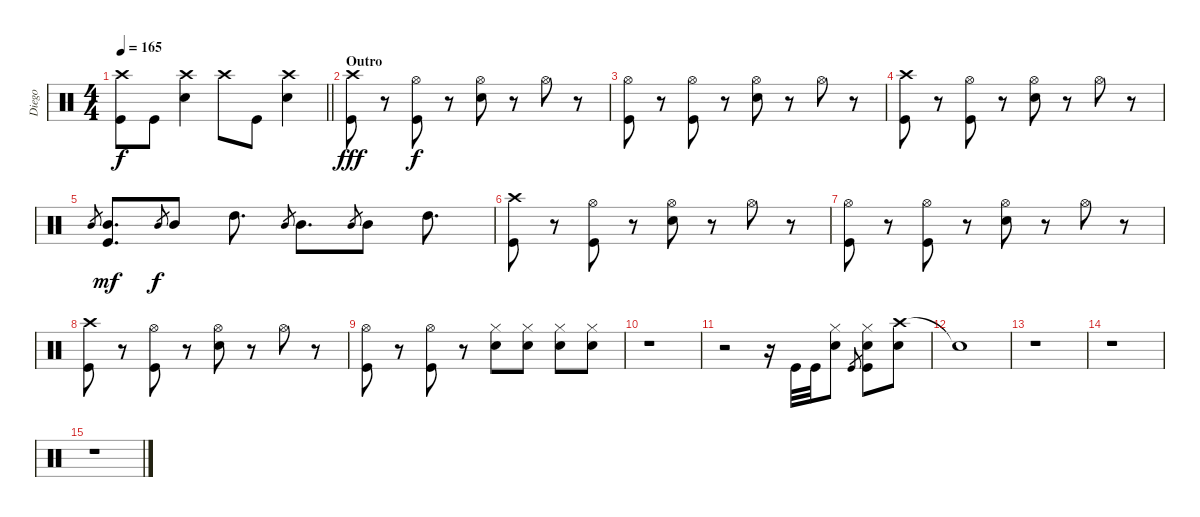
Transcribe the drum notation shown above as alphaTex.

\track ("Diego" "Diego") {instrument percussion}
\staff {score}
\articulation defaults
\ts (4 4)
\tempo 165
\clef neutral
\barLineRight lightlight
\ks c
("Crash high (hit)" "Kick (hit)").8{dy f} "Kick (hit)".8 ("Crash high (hit)" "Snare (hit) 2").4 "Crash high (hit)".8 "Kick (hit)".8 ("Crash high (hit)" "Snare (hit) 2").4 |
\section ("" "Outro")
("Crash high (hit)" "Kick (hit)").8{dy fff} r.8 ("Hi-Hat (open)" "Kick (hit)").8{dy f} r.8 ("Hi-Hat (open)" "Snare (hit) 2").8 r.8 "Hi-Hat (open)".8 r.8 |
("Hi-Hat (open)" "Kick (hit)").8 r.8 ("Hi-Hat (open)" "Kick (hit)").8 r.8 ("Hi-Hat (open)" "Snare (hit) 2").8 r.8 "Hi-Hat (open)".8 r.8 |
("Crash high (hit)" "Kick (hit)").8 r.8 ("Hi-Hat (open)" "Kick (hit)").8 r.8 ("Hi-Hat (open)" "Snare (hit) 2").8 r.8 "Hi-Hat (open)".8 r.8 |
"Mid Tom (hit)".8{gr} ("Mid Tom (hit)" "Kick (hit)").8{d dy mf} "Mid Tom (hit)".8{gr dy f} "Mid Tom (hit)".8 "High Tom (hit)".8{d} "Mid Tom (hit)".8{gr} "Mid Tom (hit)".8{d} "Mid Tom (hit)".8{gr} "Mid Tom (hit)".8 "High Tom (hit)".8{d} |
("Crash high (hit)" "Kick (hit)").8 r.8 ("Hi-Hat (open)" "Kick (hit)").8 r.8 ("Hi-Hat (open)" "Snare (hit) 2").8 r.8 "Hi-Hat (open)".8 r.8 |
("Hi-Hat (open)" "Kick (hit)").8 r.8 ("Hi-Hat (open)" "Kick (hit)").8 r.8 ("Hi-Hat (open)" "Snare (hit) 2").8 r.8 "Hi-Hat (open)".8 r.8 |
("Crash high (hit)" "Kick (hit)").8 r.8 ("Hi-Hat (open)" "Kick (hit)").8 r.8 ("Hi-Hat (open)" "Snare (hit) 2").8 r.8 "Hi-Hat (open)".8 r.8 |
("Hi-Hat (open)" "Kick (hit)").8 r.8 ("Hi-Hat (open)" "Kick (hit)").8 r.8 ("Hi-Hat (closed)" "Snare (hit) 2").8 ("Hi-Hat (closed)" "Snare (hit) 2").8 ("Hi-Hat (closed)" "Snare (hit) 2").8 ("Hi-Hat (closed)" "Snare (hit) 2").8 |
r.1 |
r.2 r.16 "Kick (hit)".32 "Kick (hit)".32 ("Hi-Hat (closed)" "Snare (hit) 2").8 "Kick (hit)".8{gr} ("Hi-Hat (closed)" "Snare (hit) 2" "Kick (hit)").8 ("Crash high (hit)" "Snare (hit) 2").8 |
"Snare (hit)"{t}.1 |
r.1 |
r.1 |
r.1
